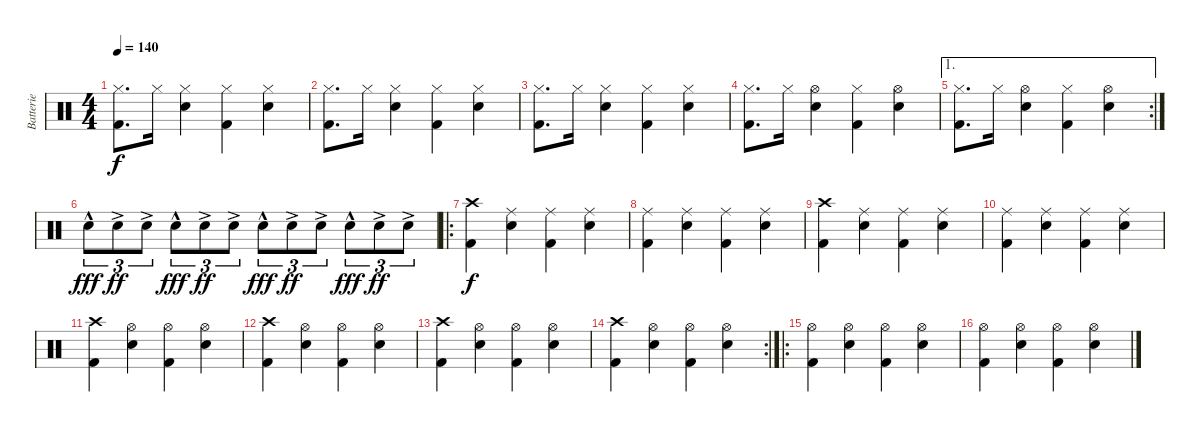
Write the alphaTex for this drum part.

\track ("Batterie" "Batterie") {instrument percussion}
\staff {score}
\articulation defaults
\ts (4 4)
\tempo 140
\clef neutral
\ks c
("Hi-Hat (closed)" "Kick (hit) 2").8{d dy f} "Hi-Hat (closed)".16 ("Hi-Hat (closed)" "Electric Snare (hit)").4 ("Hi-Hat (closed)" "Kick (hit) 2").4 ("Hi-Hat (closed)" "Electric Snare (hit)").4 |
("Hi-Hat (closed)" "Kick (hit) 2").8{d} "Hi-Hat (closed)".16 ("Hi-Hat (closed)" "Electric Snare (hit)").4 ("Hi-Hat (closed)" "Kick (hit) 2").4 ("Hi-Hat (closed)" "Electric Snare (hit)").4 |
("Hi-Hat (closed)" "Kick (hit) 2").8{d} "Hi-Hat (closed)".16 ("Hi-Hat (closed)" "Electric Snare (hit)").4 ("Hi-Hat (closed)" "Kick (hit) 2").4 ("Hi-Hat (closed)" "Electric Snare (hit)").4 |
("Hi-Hat (closed)" "Kick (hit) 2").8{d} "Hi-Hat (closed)".16 ("Hi-Hat (open)" "Electric Snare (hit)").4 ("Hi-Hat (closed)" "Kick (hit) 2").4 ("Hi-Hat (open)" "Electric Snare (hit)").4 |
\ae 1
\rc 2
("Hi-Hat (closed)" "Kick (hit) 2").8{d} "Hi-Hat (closed)".16 ("Hi-Hat (open)" "Electric Snare (hit)").4 ("Hi-Hat (closed)" "Kick (hit) 2").4 ("Hi-Hat (open)" "Electric Snare (hit)").4 |
"Electric Snare (hit)"{hac}.8{tu (3 2) dy fff} "Electric Snare (hit)"{ac}.8{tu (3 2) dy ff} "Electric Snare (hit)"{ac}.8{tu (3 2)} "Electric Snare (hit)"{hac}.8{tu (3 2) dy fff} "Electric Snare (hit)"{ac}.8{tu (3 2) dy ff} "Electric Snare (hit)"{ac}.8{tu (3 2)} "Electric Snare (hit)"{hac}.8{tu (3 2) dy fff} "Electric Snare (hit)"{ac}.8{tu (3 2) dy ff} "Electric Snare (hit)"{ac}.8{tu (3 2)} "Electric Snare (hit)"{hac}.8{tu (3 2) dy fff} "Electric Snare (hit)"{ac}.8{tu (3 2) dy ff} "Electric Snare (hit)"{ac}.8{tu (3 2)} |
\ro
("Crash high (hit)" "Kick (hit) 2").4{dy f} ("Ride (middle)" "Electric Snare (hit)").4 ("Ride (middle)" "Kick (hit) 2").4 ("Ride (middle)" "Electric Snare (hit)").4 |
("Ride (middle)" "Kick (hit) 2").4 ("Ride (middle)" "Electric Snare (hit)").4 ("Ride (middle)" "Kick (hit) 2").4 ("Ride (middle)" "Electric Snare (hit)").4 |
("Crash high (hit)" "Kick (hit) 2").4 ("Ride (middle)" "Electric Snare (hit)").4 ("Ride (middle)" "Kick (hit) 2").4 ("Ride (middle)" "Electric Snare (hit)").4 |
("Ride (middle)" "Kick (hit) 2").4 ("Ride (middle)" "Electric Snare (hit)").4 ("Ride (middle)" "Kick (hit) 2").4 ("Ride (middle)" "Electric Snare (hit)").4 |
("Crash high (hit)" "Kick (hit) 2").4 ("Hi-Hat (open)" "Electric Snare (hit)").4 ("Hi-Hat (open)" "Kick (hit) 2").4 ("Hi-Hat (open)" "Electric Snare (hit)").4 |
("Crash high (hit)" "Kick (hit) 2").4 ("Hi-Hat (open)" "Electric Snare (hit)").4 ("Hi-Hat (open)" "Kick (hit) 2").4 ("Hi-Hat (open)" "Electric Snare (hit)").4 |
("Crash high (hit)" "Kick (hit) 2").4 ("Hi-Hat (open)" "Electric Snare (hit)").4 ("Hi-Hat (open)" "Kick (hit) 2").4 ("Hi-Hat (open)" "Electric Snare (hit)").4 |
\rc 2
("Crash high (hit)" "Kick (hit) 2").4 ("Hi-Hat (open)" "Electric Snare (hit)").4 ("Hi-Hat (open)" "Kick (hit) 2").4 ("Hi-Hat (open)" "Electric Snare (hit)").4 |
\ro
("Hi-Hat (open)" "Kick (hit) 2").4 ("Hi-Hat (open)" "Electric Snare (hit)").4 ("Hi-Hat (open)" "Kick (hit) 2").4 ("Hi-Hat (open)" "Electric Snare (hit)").4 |
("Hi-Hat (open)" "Kick (hit) 2").4 ("Hi-Hat (open)" "Electric Snare (hit)").4 ("Hi-Hat (open)" "Kick (hit) 2").4 ("Hi-Hat (open)" "Electric Snare (hit)").4
